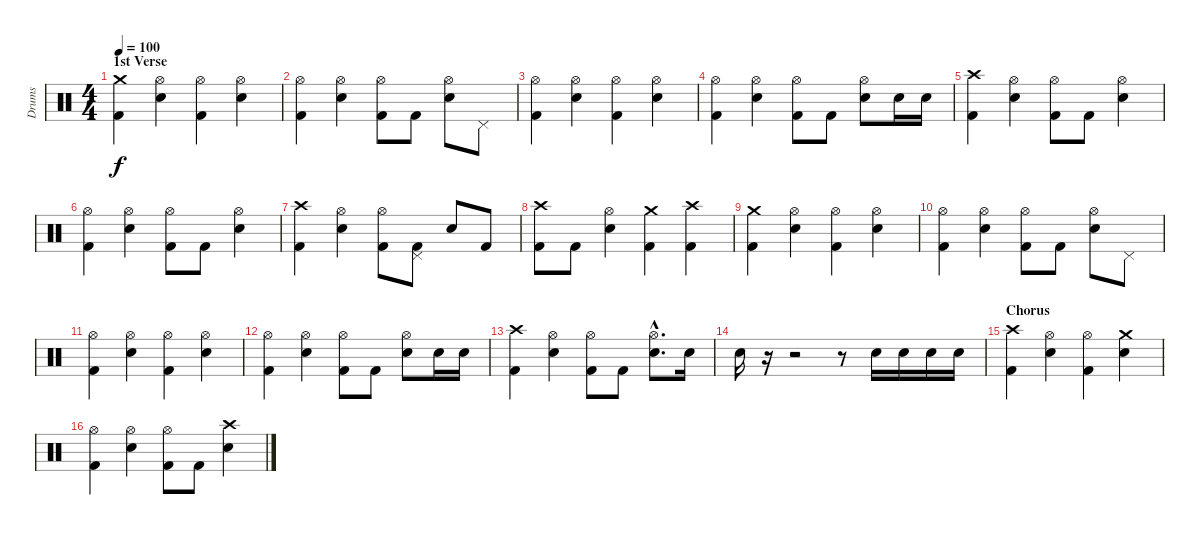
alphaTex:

\track ("Drums" "Drums") {instrument percussion}
\staff {score}
\articulation defaults
\ts (4 4)
\section ("" "1st Verse")
\tempo 100
\clef neutral
\ks c
("Crash medium (hit)" "Kick (hit) 2").4{dy f} ("Hi-Hat (open)" "Snare (hit) 2").4 ("Hi-Hat (open)" "Kick (hit) 2").4 ("Hi-Hat (open)" "Snare (hit) 2").4 |
("Hi-Hat (open)" "Kick (hit) 2").4 ("Hi-Hat (open)" "Snare (hit) 2").4 ("Hi-Hat (open)" "Kick (hit) 2").8 "Kick (hit) 2".8 ("Hi-Hat (open)" "Snare (hit) 2").8 "Pedal Hi-Hat (hit)".8 |
("Hi-Hat (open)" "Kick (hit) 2").4 ("Hi-Hat (open)" "Snare (hit) 2").4 ("Hi-Hat (open)" "Kick (hit) 2").4 ("Hi-Hat (open)" "Snare (hit) 2").4 |
("Hi-Hat (open)" "Kick (hit) 2").4 ("Hi-Hat (open)" "Snare (hit) 2").4 ("Hi-Hat (open)" "Kick (hit) 2").8 "Kick (hit) 2".8 ("Hi-Hat (open)" "Snare (hit) 2").8 "Snare (hit) 2".16 "Snare (hit) 2".16 |
("Crash high (hit)" "Kick (hit) 2").4 ("Hi-Hat (open)" "Snare (hit) 2").4 ("Hi-Hat (open)" "Kick (hit) 2").8 "Kick (hit) 2".8 ("Hi-Hat (open)" "Snare (hit) 2").4 |
("Hi-Hat (open)" "Kick (hit) 2").4 ("Hi-Hat (open)" "Snare (hit) 2").4 ("Hi-Hat (open)" "Kick (hit) 2").8 "Kick (hit) 2".8 ("Hi-Hat (open)" "Snare (hit) 2").4 |
("Crash high (hit)" "Kick (hit) 2").4 ("Hi-Hat (open)" "Snare (hit) 2").4 ("Hi-Hat (open)" "Kick (hit) 2").8 ("Pedal Hi-Hat (hit)" "Kick (hit) 2").8 "Snare (hit) 2".8 "Kick (hit) 2".8 |
("Crash high (hit)" "Kick (hit) 2").8 "Kick (hit) 2".8 ("Hi-Hat (open)" "Snare (hit) 2").4 ("Crash medium (hit)" "Kick (hit) 2").4 ("Crash high (hit)" "Kick (hit) 2").4 |
("Crash medium (hit)" "Kick (hit) 2").4 ("Hi-Hat (open)" "Snare (hit) 2").4 ("Hi-Hat (open)" "Kick (hit) 2").4 ("Hi-Hat (open)" "Snare (hit) 2").4 |
("Hi-Hat (open)" "Kick (hit) 2").4 ("Hi-Hat (open)" "Snare (hit) 2").4 ("Hi-Hat (open)" "Kick (hit) 2").8 "Kick (hit) 2".8 ("Hi-Hat (open)" "Snare (hit) 2").8 "Pedal Hi-Hat (hit)".8 |
("Hi-Hat (open)" "Kick (hit) 2").4 ("Hi-Hat (open)" "Snare (hit) 2").4 ("Hi-Hat (open)" "Kick (hit) 2").4 ("Hi-Hat (open)" "Snare (hit) 2").4 |
("Hi-Hat (open)" "Kick (hit) 2").4 ("Hi-Hat (open)" "Snare (hit) 2").4 ("Hi-Hat (open)" "Kick (hit) 2").8 "Kick (hit) 2".8 ("Hi-Hat (open)" "Snare (hit) 2").8 "Snare (hit) 2".16 "Snare (hit) 2".16 |
("Crash high (hit)" "Kick (hit) 2").4 ("Hi-Hat (open)" "Snare (hit) 2").4 ("Hi-Hat (open)" "Kick (hit) 2").8 "Kick (hit) 2".8 ("Hi-Hat (open)"{hac} "Snare (hit) 2"{hac}).8{d} "Snare (hit) 2".16 |
"Snare (hit) 2".16 r.16 r.2 r.8 "Snare (hit) 2".16 "Snare (hit) 2".16 "Snare (hit) 2".16 "Snare (hit) 2".16 |
\section ("" "Chorus")
("Crash high (hit)" "Kick (hit) 2").4 ("Hi-Hat (open)" "Snare (hit) 2").4 ("Hi-Hat (open)" "Kick (hit) 2").4 ("Crash medium (hit)" "Snare (hit) 2").4 |
("Hi-Hat (open)" "Kick (hit) 2").4 ("Hi-Hat (open)" "Snare (hit) 2").4 ("Hi-Hat (open)" "Kick (hit) 2").8 "Kick (hit) 2".8 ("Crash high (hit)" "Snare (hit) 2").4
